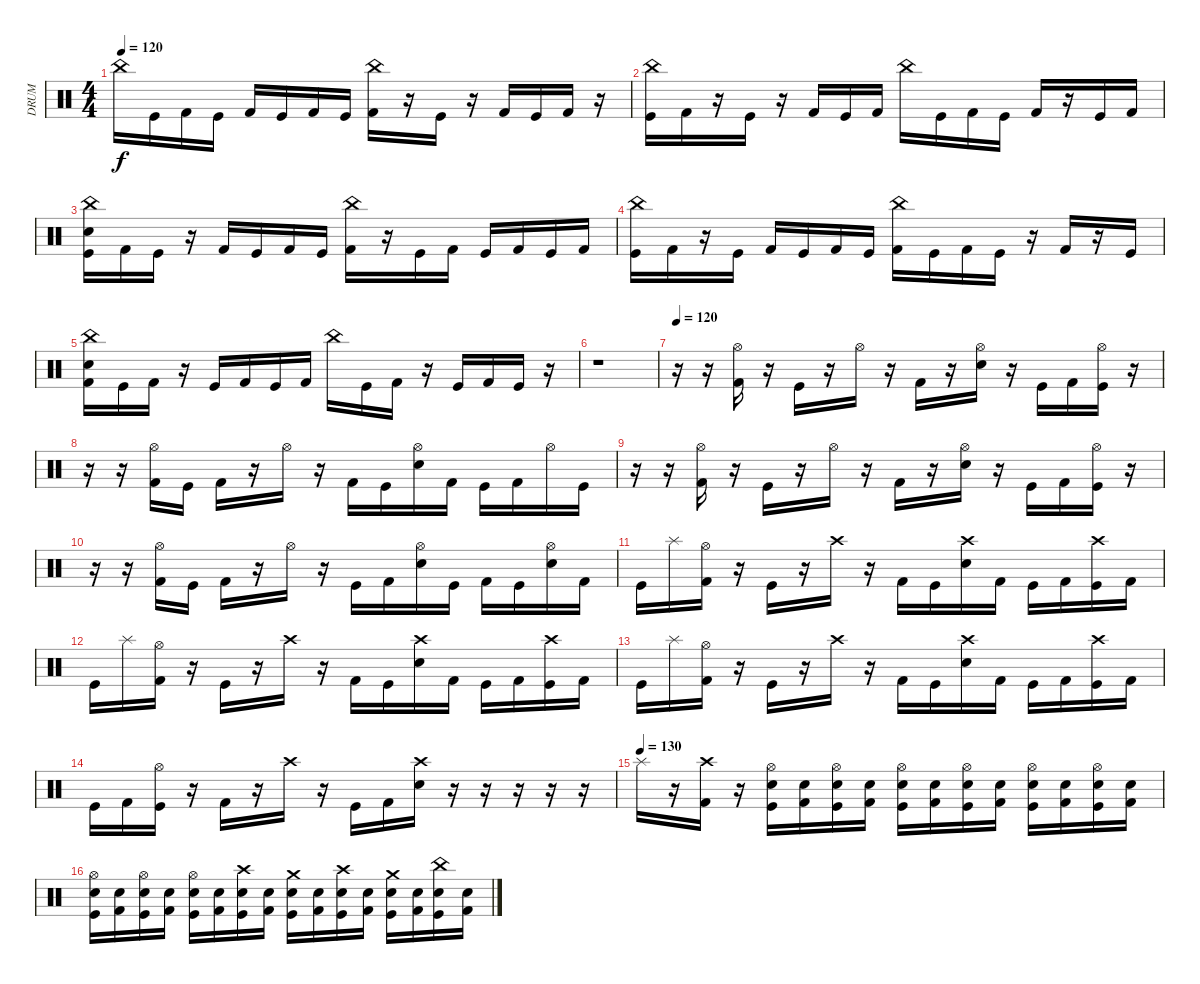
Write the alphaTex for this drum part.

\track ("DRUM" "DRUM") {instrument percussion}
\staff {score}
\articulation defaults
\ts (4 4)
\tempo 120
\clef neutral
\ks c "China (hit)".16{dy f} "Kick (hit)".16 "Kick (hit) 2".16 "Kick (hit)".16 "Kick (hit) 2".16 "Kick (hit)".16 "Kick (hit) 2".16 "Kick (hit)".16
("China (hit)" "Kick (hit) 2").16 r.16 "Kick (hit)".16 r.16 "Kick (hit) 2".16 "Kick (hit)".16 "Kick (hit) 2".16 r.16 |
("China (hit)" "Kick (hit)").16 "Kick (hit) 2".16 r.16 "Kick (hit)".16 r.16 "Kick (hit) 2".16 "Kick (hit)".16 "Kick (hit) 2".16 "China (hit)".16 "Kick (hit)".16 "Kick (hit) 2".16 "Kick (hit)".16 "Kick (hit) 2".16 r.16 "Kick (hit)".16 "Kick (hit) 2".16 |
("China (hit)" "Electric Snare (hit)" "Kick (hit)").16 "Kick (hit) 2".16 "Kick (hit)".16 r.16 "Kick (hit) 2".16 "Kick (hit)".16 "Kick (hit) 2".16 "Kick (hit)".16 ("China (hit)" "Kick (hit) 2").16 r.16 "Kick (hit)".16 "Kick (hit) 2".16 "Kick (hit)".16 "Kick (hit) 2".16 "Kick (hit)".16 "Kick (hit) 2".16 |
("China (hit)" "Kick (hit)").16 "Kick (hit) 2".16 r.16 "Kick (hit)".16 "Kick (hit) 2".16 "Kick (hit)".16 "Kick (hit) 2".16 "Kick (hit)".16 ("China (hit)" "Kick (hit) 2").16 "Kick (hit)".16 "Kick (hit) 2".16 "Kick (hit)".16 r.16 "Kick (hit) 2".16 r.16 "Kick (hit)".16 |
("China (hit)" "Electric Snare (hit)" "Kick (hit) 2").16 "Kick (hit)".16 "Kick (hit) 2".16 r.16 "Kick (hit)".16 "Kick (hit) 2".16 "Kick (hit)".16 "Kick (hit) 2".16 "China (hit)".16 "Kick (hit)".16 "Kick (hit) 2".16 r.16 "Kick (hit)".16 "Kick (hit) 2".16 "Kick (hit)".16 r.16 |
r.1 |
\tempo 120
r.16 r.16 ("Hi-Hat (open)" "Kick (hit) 2").16 r.16 "Kick (hit)".16 r.16 "Hi-Hat (open)".16 r.16 "Kick (hit) 2".16 r.16 ("Hi-Hat (open)" "Electric Snare (hit)").16 r.16 "Kick (hit)".16 "Kick (hit) 2".16 ("Hi-Hat (open)" "Kick (hit)").16 r.16 |
r.16 r.16 ("Hi-Hat (open)" "Kick (hit) 2").16 "Kick (hit)".16 "Kick (hit) 2".16 r.16 "Hi-Hat (open)".16 r.16 "Kick (hit) 2".16 "Kick (hit)".16 ("Hi-Hat (open)" "Electric Snare (hit)").16 "Kick (hit) 2".16 "Kick (hit)".16 "Kick (hit) 2".16 "Hi-Hat (open)".16 "Kick (hit)".16 |
r.16 r.16 ("Hi-Hat (open)" "Kick (hit) 2").16 r.16 "Kick (hit)".16 r.16 "Hi-Hat (open)".16 r.16 "Kick (hit) 2".16 r.16 ("Hi-Hat (open)" "Electric Snare (hit)").16 r.16 "Kick (hit)".16 "Kick (hit) 2".16 ("Hi-Hat (open)" "Kick (hit)").16 r.16 |
r.16 r.16 ("Hi-Hat (open)" "Kick (hit) 2").16 "Kick (hit)".16 "Kick (hit) 2".16 r.16 "Hi-Hat (open)".16 r.16 "Kick (hit)".16 "Kick (hit) 2".16 ("Hi-Hat (open)" "Electric Snare (hit)").16 "Kick (hit)".16 "Kick (hit) 2".16 "Kick (hit)".16 ("Hi-Hat (open)" "Electric Snare (hit)").16 "Kick (hit) 2".16 |
"Kick (hit)".16 "Splash (hit)".16 ("Hi-Hat (open)" "Kick (hit) 2").16 r.16 "Kick (hit)".16 r.16 "Crash high (hit)".16 r.16 "Kick (hit) 2".16 "Kick (hit)".16 ("Crash high (hit)" "Electric Snare (hit)").16 "Kick (hit) 2".16 "Kick (hit)".16 "Kick (hit) 2".16 ("Crash high (hit)" "Kick (hit)").16 "Kick (hit) 2".16 |
"Kick (hit)".16 "Splash (hit)".16 ("Hi-Hat (open)" "Kick (hit) 2").16 r.16 "Kick (hit)".16 r.16 "Crash high (hit)".16 r.16 "Kick (hit) 2".16 "Kick (hit)".16 ("Crash high (hit)" "Electric Snare (hit)").16 "Kick (hit) 2".16 "Kick (hit)".16 "Kick (hit) 2".16 ("Crash high (hit)" "Kick (hit)").16 "Kick (hit) 2".16 |
"Kick (hit)".16 "Splash (hit)".16 ("Hi-Hat (open)" "Kick (hit) 2").16 r.16 "Kick (hit)".16 r.16 "Crash high (hit)".16 r.16 "Kick (hit) 2".16 "Kick (hit)".16 ("Crash high (hit)" "Electric Snare (hit)").16 "Kick (hit) 2".16 "Kick (hit)".16 "Kick (hit) 2".16 ("Crash high (hit)" "Kick (hit)").16 "Kick (hit) 2".16 |
"Kick (hit)".16 "Kick (hit) 2".16 ("Hi-Hat (open)" "Kick (hit)").16 r.16 "Kick (hit) 2".16 r.16 "Crash high (hit)".16 r.16 "Kick (hit)".16 "Kick (hit) 2".16 ("Crash high (hit)" "Electric Snare (hit)").16 r.16 r.16 r.16 r.16 r.16 |
\tempo (130)
"Splash (hit)".16 r.16 ("Crash high (hit)" "Kick (hit) 2").16 r.16 ("Hi-Hat (open)" "Electric Snare (hit)" "Kick (hit)").16 ("Electric Snare (hit)" "Kick (hit) 2").16 ("Hi-Hat (open)" "Electric Snare (hit)" "Kick (hit)").16 ("Electric Snare (hit)" "Kick (hit) 2").16 ("Hi-Hat (open)" "Electric Snare (hit)" "Kick (hit)").16 ("Electric Snare (hit)" "Kick (hit) 2").16 ("Hi-Hat (open)" "Electric Snare (hit)" "Kick (hit)").16 ("Electric Snare (hit)" "Kick (hit) 2").16 ("Hi-Hat (open)" "Electric Snare (hit)" "Kick (hit)").16 ("Electric Snare (hit)" "Kick (hit) 2").16 ("Hi-Hat (open)" "Electric Snare (hit)" "Kick (hit)").16 ("Electric Snare (hit)" "Kick (hit) 2").16 |
("Hi-Hat (open)" "Electric Snare (hit)" "Kick (hit)").16 ("Electric Snare (hit)" "Kick (hit) 2").16 ("Hi-Hat (open)" "Electric Snare (hit)" "Kick (hit)").16 ("Electric Snare (hit)" "Kick (hit) 2").16 ("Hi-Hat (open)" "Electric Snare (hit)" "Kick (hit)").16 ("Electric Snare (hit)" "Kick (hit) 2").16 ("Crash high (hit)" "Electric Snare (hit)" "Kick (hit)").16 ("Electric Snare (hit)" "Kick (hit) 2").16 ("Crash medium (hit)" "Electric Snare (hit)" "Kick (hit)").16 ("Electric Snare (hit)" "Kick (hit) 2").16 ("Crash high (hit)" "Electric Snare (hit)" "Kick (hit)").16 ("Electric Snare (hit)" "Kick (hit) 2").16 ("Crash medium (hit)" "Electric Snare (hit)" "Kick (hit)").16 ("Electric Snare (hit)" "Kick (hit) 2").16 ("China (hit)" "Electric Snare (hit)" "Kick (hit)").16 ("Electric Snare (hit)" "Kick (hit) 2").16
